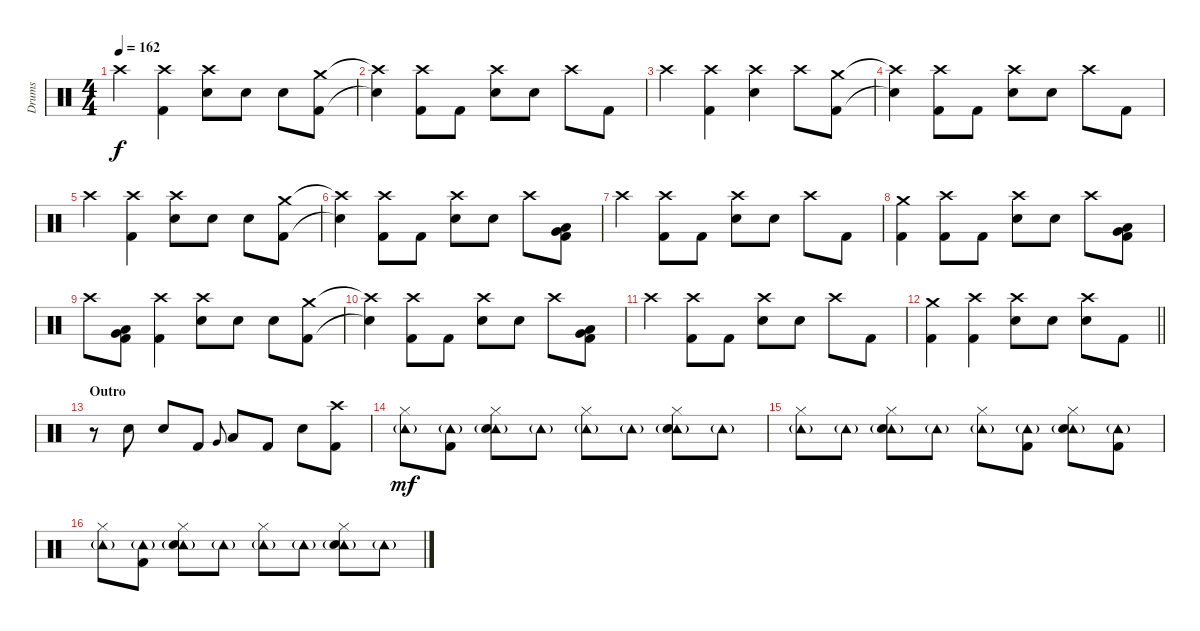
\track ("Drums" "Drums") {instrument percussion}
\staff {score}
\articulation defaults
\ts (4 4)
\tempo 162
\clef neutral
\ks c "Crash high (hit)".4{dy f}
("Crash high (hit)" "Kick (hit) 2").4 ("Crash high (hit)" "Snare (hit) 2").8 "Snare (hit) 2".8 "Snare (hit) 2".8 ("Crash medium (hit)" "Kick (hit) 2").8 |
("Crash high (hit)"{t} "Snare (hit)"{t}).4 ("Crash high (hit)" "Kick (hit) 2").8 "Kick (hit) 2".8 ("Crash high (hit)" "Snare (hit) 2").8 "Snare (hit) 2".8 "Crash high (hit)".8 "Kick (hit) 2".8 |
"Crash high (hit)".4 ("Crash high (hit)" "Kick (hit) 2").4 ("Crash high (hit)" "Snare (hit) 2").4 "Crash high (hit)".8 ("Crash medium (hit)" "Kick (hit) 2").8 |
("Crash high (hit)"{t} "Snare (hit)"{t}).4 ("Crash high (hit)" "Kick (hit) 2").8 "Kick (hit) 2".8 ("Crash high (hit)" "Snare (hit) 2").8 "Snare (hit) 2".8 "Crash high (hit)".8 "Kick (hit) 2".8 |
"Crash high (hit)".4 ("Crash high (hit)" "Kick (hit) 2").4 ("Crash high (hit)" "Snare (hit) 2").8 "Snare (hit) 2".8 "Snare (hit) 2".8 ("Crash medium (hit)" "Kick (hit) 2").8 |
("Crash high (hit)"{t} "Snare (hit)"{t}).4 ("Crash high (hit)" "Kick (hit) 2").8 "Kick (hit) 2".8 ("Crash high (hit)" "Snare (hit) 2").8 "Snare (hit) 2".8 "Crash high (hit)".8 ("Low Tom (hit)" "Very Low Tom (hit)" "Kick (hit) 2").8 |
"Crash high (hit)".4 ("Crash high (hit)" "Kick (hit) 2").8 "Kick (hit) 2".8 ("Crash high (hit)" "Snare (hit) 2").8 "Snare (hit) 2".8 "Crash high (hit)".8 "Kick (hit) 2".8 |
("Crash medium (hit)" "Kick (hit) 2").4 ("Crash high (hit)" "Kick (hit) 2").8 "Kick (hit) 2".8 ("Crash high (hit)" "Snare (hit) 2").8 "Snare (hit) 2".8 "Crash high (hit)".8 ("Low Tom (hit)" "Very Low Tom (hit)" "Kick (hit) 2").8 |
"Crash high (hit)".8 ("Low Tom (hit)" "Very Low Tom (hit)" "Kick (hit) 2").8 ("Crash high (hit)" "Kick (hit) 2").4 ("Crash high (hit)" "Snare (hit) 2").8 "Snare (hit) 2".8 "Snare (hit) 2".8 ("Crash medium (hit)" "Kick (hit) 2").8 |
("Crash high (hit)"{t} "Snare (hit)"{t}).4 ("Crash high (hit)" "Kick (hit) 2").8 "Kick (hit) 2".8 ("Crash high (hit)" "Snare (hit) 2").8 "Snare (hit) 2".8 "Crash high (hit)".8 ("Low Tom (hit)" "Very Low Tom (hit)" "Kick (hit) 2").8 |
"Crash high (hit)".4 ("Crash high (hit)" "Kick (hit) 2").8 "Kick (hit) 2".8 ("Crash high (hit)" "Snare (hit) 2").8 "Snare (hit) 2".8 "Crash high (hit)".8 "Kick (hit) 2".8 |
\barLineRight lightlight
("Crash medium (hit)" "Kick (hit) 2").4 ("Crash high (hit)" "Kick (hit) 2").4 ("Crash high (hit)" "Snare (hit) 2").8 "Snare (hit) 2".8 ("Crash high (hit)" "Snare (hit) 2").8 "Kick (hit) 2".8 |
\section ("" "Outro")
r.8 "Snare (hit) 2".8 "Snare (hit) 2".8 "Kick (hit) 2".8 "Very Low Tom (hit)".8{gr onbeat} "Low Tom (hit)".8 "Kick (hit) 2".8 "Snare (hit) 2".8 ("Crash high (hit)" "Kick (hit) 2").8 |
("Tambourine (hit)"{g} "Hi-Hat (closed)").8{dy mf} ("Tambourine (hit)"{g} "Kick (hit) 2").8 ("Tambourine (hit)"{g} "Snare (hit) 2" "Hi-Hat (closed)").8 "Tambourine (hit)"{g}.8 ("Tambourine (hit)"{g} "Hi-Hat (closed)").8 "Tambourine (hit)"{g}.8 ("Tambourine (hit)"{g} "Snare (hit) 2" "Hi-Hat (closed)").8 "Tambourine (hit)"{g}.8 |
("Tambourine (hit)"{g} "Hi-Hat (closed)").8 "Tambourine (hit)"{g}.8 ("Tambourine (hit)"{g} "Snare (hit) 2" "Hi-Hat (closed)").8 "Tambourine (hit)"{g}.8 ("Tambourine (hit)"{g} "Hi-Hat (closed)").8 ("Tambourine (hit)"{g} "Kick (hit) 2").8 ("Tambourine (hit)"{g} "Snare (hit) 2" "Hi-Hat (closed)").8 ("Tambourine (hit)"{g} "Kick (hit) 2").8 |
("Tambourine (hit)"{g} "Hi-Hat (closed)").8 ("Tambourine (hit)"{g} "Kick (hit) 2").8 ("Tambourine (hit)"{g} "Snare (hit) 2" "Hi-Hat (closed)").8 "Tambourine (hit)"{g}.8 ("Tambourine (hit)"{g} "Hi-Hat (closed)").8 "Tambourine (hit)"{g}.8 ("Tambourine (hit)"{g} "Snare (hit) 2" "Hi-Hat (closed)").8 "Tambourine (hit)"{g}.8
